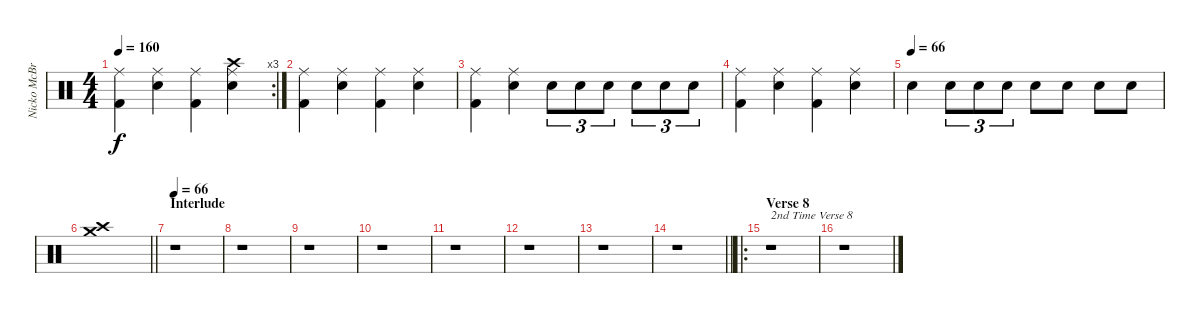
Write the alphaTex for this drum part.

\track ("Nicko McBrain" "Nicko McBr") {instrument percussion}
\staff {score}
\articulation defaults
\rc 3
\ts (4 4)
\tempo 160
\clef neutral
\ks c
("Ride (middle)" "Kick (hit) 2").4{dy f} ("Ride (middle)" "Snare (hit) 2").4 ("Ride (middle)" "Kick (hit) 2").4 ("Ride (middle)" "Snare (hit) 2" "Crash high (hit)").4 |
("Ride (middle)" "Kick (hit) 2").4 ("Ride (middle)" "Snare (hit) 2").4 ("Ride (middle)" "Kick (hit) 2").4 ("Ride (middle)" "Snare (hit) 2").4 |
("Ride (middle)" "Kick (hit) 2").4 ("Ride (middle)" "Snare (hit) 2").4 "Snare (hit) 2".8{tu (3 2)} "Snare (hit) 2".8{tu (3 2)} "Snare (hit) 2".8{tu (3 2)} "Snare (hit) 2".8{tu (3 2)} "Snare (hit) 2".8{tu (3 2)} "Snare (hit) 2".8{tu (3 2)} |
("Ride (middle)" "Kick (hit) 2").4 ("Ride (middle)" "Snare (hit) 2").4 ("Ride (middle)" "Kick (hit) 2").4 ("Ride (middle)" "Snare (hit) 2").4 |
\tempo (66)
"Snare (hit) 2".4 "Snare (hit) 2".8{tu (3 2)} "Snare (hit) 2".8{tu (3 2)} "Snare (hit) 2".8{tu (3 2)} "Snare (hit) 2".8 "Snare (hit) 2".8 "Snare (hit) 2".8 "Snare (hit) 2".8 |
\barLineRight lightlight
("Crash high (hit)" "Crash medium (hit)").1 |
\section ("" "Interlude")
\tempo 66
r.1 |
r.1 |
r.1 |
r.1 |
r.1 |
r.1 |
r.1 |
\barLineRight lightlight
r.1 |
\ro
\section ("" "Verse 8")
r.1{txt "2nd Time Verse 8"} |
r.1
